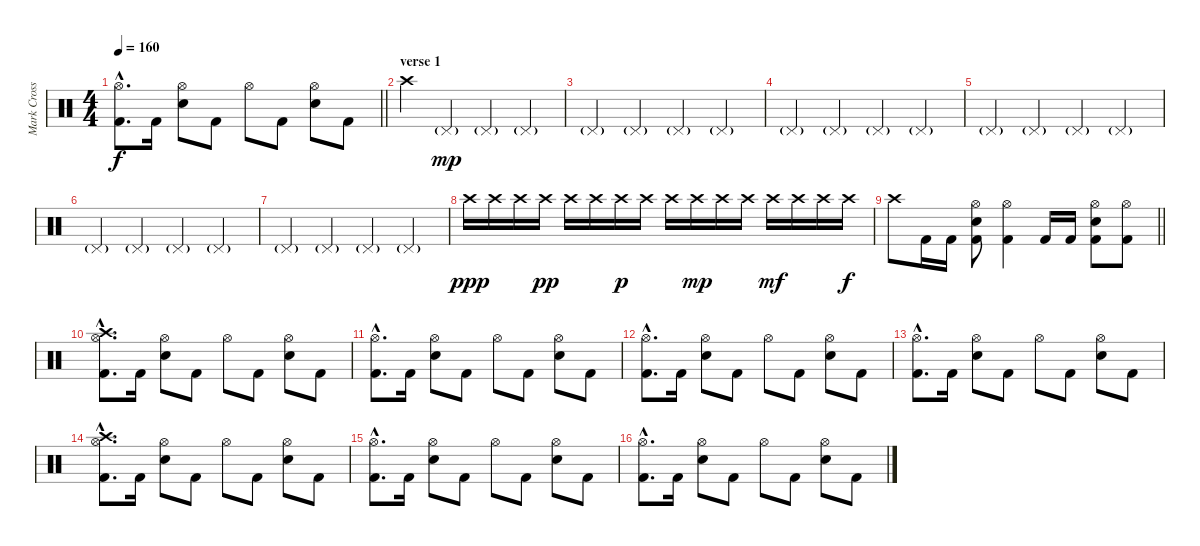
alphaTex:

\track ("Mark Cross" "Mark Cross") {instrument percussion}
\staff {score}
\articulation defaults
\ts (4 4)
\tempo 160
\clef neutral
\barLineRight lightlight
\ks aminor
("Hi-Hat (open)"{hac} "Kick (hit) 2"{hac}).8{d dy f} "Kick (hit) 2".16 ("Hi-Hat (open)" "Electric Snare (hit)").8 "Kick (hit) 2".8 "Hi-Hat (open)".8 "Kick (hit) 2".8 ("Hi-Hat (open)" "Electric Snare (hit)").8 "Kick (hit) 2".8 |
\section ("" "verse 1")
"Crash high (hit)".4 "Pedal Hi-Hat (hit)"{g}.4{dy mp} "Pedal Hi-Hat (hit)"{g}.4 "Pedal Hi-Hat (hit)"{g}.4 |
"Pedal Hi-Hat (hit)"{g}.4 "Pedal Hi-Hat (hit)"{g}.4 "Pedal Hi-Hat (hit)"{g}.4 "Pedal Hi-Hat (hit)"{g}.4 |
"Pedal Hi-Hat (hit)"{g}.4 "Pedal Hi-Hat (hit)"{g}.4 "Pedal Hi-Hat (hit)"{g}.4 "Pedal Hi-Hat (hit)"{g}.4 |
"Pedal Hi-Hat (hit)"{g}.4 "Pedal Hi-Hat (hit)"{g}.4 "Pedal Hi-Hat (hit)"{g}.4 "Pedal Hi-Hat (hit)"{g}.4 |
"Pedal Hi-Hat (hit)"{g}.4 "Pedal Hi-Hat (hit)"{g}.4 "Pedal Hi-Hat (hit)"{g}.4 "Pedal Hi-Hat (hit)"{g}.4 |
"Pedal Hi-Hat (hit)"{g}.4 "Pedal Hi-Hat (hit)"{g}.4 "Pedal Hi-Hat (hit)"{g}.4 "Pedal Hi-Hat (hit)"{g}.4 |
"Crash high (hit)".16{dy ppp} "Crash high (hit)".16 "Crash high (hit)".16 "Crash high (hit)".16{dy pp} "Crash high (hit)".16 "Crash high (hit)".16 "Crash high (hit)".16{dy p} "Crash high (hit)".16 "Crash high (hit)".16 "Crash high (hit)".16{dy mp} "Crash high (hit)".16 "Crash high (hit)".16 "Crash high (hit)".16{dy mf} "Crash high (hit)".16 "Crash high (hit)".16 "Crash high (hit)".16{dy f} |
\barLineRight lightlight "Crash high (hit)".8 "Kick (hit) 2".16 "Kick (hit) 2".16
("Hi-Hat (open)" "Electric Snare (hit)" "Kick (hit) 2").8 ("Hi-Hat (open)" "Kick (hit) 2").4 "Kick (hit) 2".16 "Kick (hit) 2".16 ("Hi-Hat (open)" "Electric Snare (hit)" "Kick (hit) 2").8 ("Hi-Hat (open)" "Kick (hit) 2").8 |
\section ("" "")
("Crash high (hit)"{hac} "Hi-Hat (open)"{hac} "Kick (hit) 2"{hac}).8{d} "Kick (hit) 2".16 ("Hi-Hat (open)" "Electric Snare (hit)").8 "Kick (hit) 2".8 "Hi-Hat (open)".8 "Kick (hit) 2".8 ("Hi-Hat (open)" "Electric Snare (hit)").8 "Kick (hit) 2".8 |
("Hi-Hat (open)"{hac} "Kick (hit) 2"{hac}).8{d} "Kick (hit) 2".16 ("Hi-Hat (open)" "Electric Snare (hit)").8 "Kick (hit) 2".8 "Hi-Hat (open)".8 "Kick (hit) 2".8 ("Hi-Hat (open)" "Electric Snare (hit)").8 "Kick (hit) 2".8 |
("Hi-Hat (open)"{hac} "Kick (hit) 2"{hac}).8{d} "Kick (hit) 2".16 ("Hi-Hat (open)" "Electric Snare (hit)").8 "Kick (hit) 2".8 "Hi-Hat (open)".8 "Kick (hit) 2".8 ("Hi-Hat (open)" "Electric Snare (hit)").8 "Kick (hit) 2".8 |
("Hi-Hat (open)"{hac} "Kick (hit) 2"{hac}).8{d} "Kick (hit) 2".16 ("Hi-Hat (open)" "Electric Snare (hit)").8 "Kick (hit) 2".8 "Hi-Hat (open)".8 "Kick (hit) 2".8 ("Hi-Hat (open)" "Electric Snare (hit)").8 "Kick (hit) 2".8 |
("Crash high (hit)"{hac} "Hi-Hat (open)"{hac} "Kick (hit) 2"{hac}).8{d} "Kick (hit) 2".16 ("Hi-Hat (open)" "Electric Snare (hit)").8 "Kick (hit) 2".8 "Hi-Hat (open)".8 "Kick (hit) 2".8 ("Hi-Hat (open)" "Electric Snare (hit)").8 "Kick (hit) 2".8 |
("Hi-Hat (open)"{hac} "Kick (hit) 2"{hac}).8{d} "Kick (hit) 2".16 ("Hi-Hat (open)" "Electric Snare (hit)").8 "Kick (hit) 2".8 "Hi-Hat (open)".8 "Kick (hit) 2".8 ("Hi-Hat (open)" "Electric Snare (hit)").8 "Kick (hit) 2".8 |
("Hi-Hat (open)"{hac} "Kick (hit) 2"{hac}).8{d} "Kick (hit) 2".16 ("Hi-Hat (open)" "Electric Snare (hit)").8 "Kick (hit) 2".8 "Hi-Hat (open)".8 "Kick (hit) 2".8 ("Hi-Hat (open)" "Electric Snare (hit)").8 "Kick (hit) 2".8
